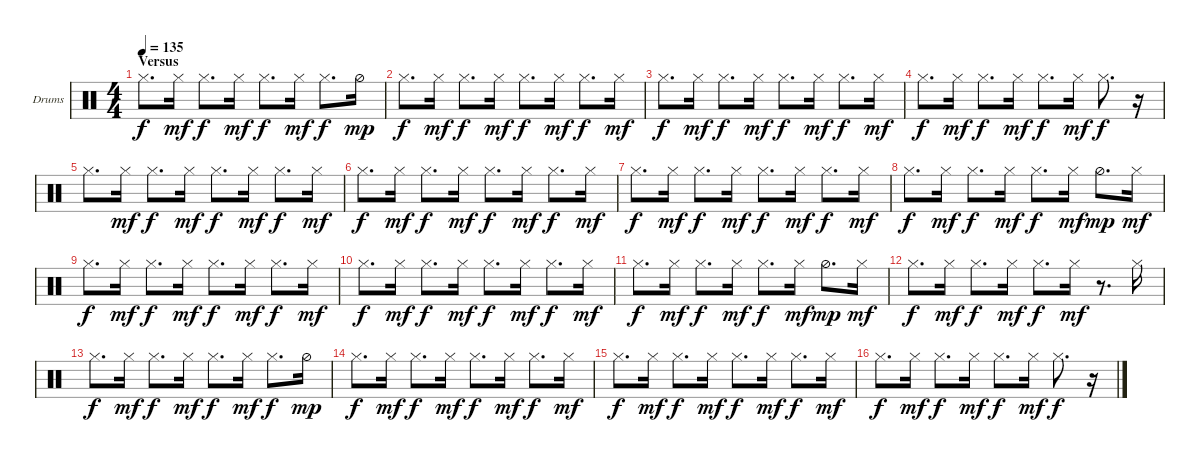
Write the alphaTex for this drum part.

\bracketExtendMode groupsimilarinstruments
\firstSystemTrackNameOrientation horizontal
\otherSystemsTrackNameOrientation horizontal
\track ("HH" "Drums") {instrument percussion}
\staff {score}
\articulation defaults
\ts (4 4)
\section ("" "Versus")
\tempo 135
\clef neutral
\ks c "Hi-Hat (closed)".8{d dy f} "Hi-Hat (closed)".16{dy mf} "Hi-Hat (closed)".8{d dy f} "Hi-Hat (closed)".16{dy mf} "Hi-Hat (closed)".8{d dy f} "Hi-Hat (closed)".16{dy mf} "Hi-Hat (closed)".8{d dy f} "Hi-Hat (half)".16{dy mp}
|
"Hi-Hat (closed)".8{d dy f} "Hi-Hat (closed)".16{dy mf} "Hi-Hat (closed)".8{d dy f} "Hi-Hat (closed)".16{dy mf} "Hi-Hat (closed)".8{d dy f} "Hi-Hat (closed)".16{dy mf} "Hi-Hat (closed)".8{d dy f} "Hi-Hat (closed)".16{dy mf} |
"Hi-Hat (closed)".8{d dy f} "Hi-Hat (closed)".16{dy mf} "Hi-Hat (closed)".8{d dy f} "Hi-Hat (closed)".16{dy mf} "Hi-Hat (closed)".8{d dy f} "Hi-Hat (closed)".16{dy mf} "Hi-Hat (closed)".8{d dy f} "Hi-Hat (closed)".16{dy mf} |
"Hi-Hat (closed)".8{d dy f} "Hi-Hat (closed)".16{dy mf} "Hi-Hat (closed)".8{d dy f} "Hi-Hat (closed)".16{dy mf} "Hi-Hat (closed)".8{d dy f} "Hi-Hat (closed)".16{dy mf} "Hi-Hat (closed)".8{d dy f} r.16 |
"Hi-Hat (closed)".8{d} "Hi-Hat (closed)".16{dy mf} "Hi-Hat (closed)".8{d dy f} "Hi-Hat (closed)".16{dy mf} "Hi-Hat (closed)".8{d dy f} "Hi-Hat (closed)".16{dy mf} "Hi-Hat (closed)".8{d dy f} "Hi-Hat (closed)".16{dy mf} |
"Hi-Hat (closed)".8{d dy f} "Hi-Hat (closed)".16{dy mf} "Hi-Hat (closed)".8{d dy f} "Hi-Hat (closed)".16{dy mf} "Hi-Hat (closed)".8{d dy f} "Hi-Hat (closed)".16{dy mf} "Hi-Hat (closed)".8{d dy f} "Hi-Hat (closed)".16{dy mf} |
"Hi-Hat (closed)".8{d dy f} "Hi-Hat (closed)".16{dy mf} "Hi-Hat (closed)".8{d dy f} "Hi-Hat (closed)".16{dy mf} "Hi-Hat (closed)".8{d dy f} "Hi-Hat (closed)".16{dy mf} "Hi-Hat (closed)".8{d dy f} "Hi-Hat (closed)".16{dy mf} |
"Hi-Hat (closed)".8{d dy f} "Hi-Hat (closed)".16{dy mf} "Hi-Hat (closed)".8{d dy f} "Hi-Hat (closed)".16{dy mf} "Hi-Hat (closed)".8{d dy f} "Hi-Hat (closed)".16{dy mf} "Hi-Hat (half)".8{d dy mp} "Hi-Hat (closed)".16{dy mf} |
"Hi-Hat (closed)".8{d dy f} "Hi-Hat (closed)".16{dy mf} "Hi-Hat (closed)".8{d dy f} "Hi-Hat (closed)".16{dy mf} "Hi-Hat (closed)".8{d dy f} "Hi-Hat (closed)".16{dy mf} "Hi-Hat (closed)".8{d dy f} "Hi-Hat (closed)".16{dy mf} |
"Hi-Hat (closed)".8{d dy f} "Hi-Hat (closed)".16{dy mf} "Hi-Hat (closed)".8{d dy f} "Hi-Hat (closed)".16{dy mf} "Hi-Hat (closed)".8{d dy f} "Hi-Hat (closed)".16{dy mf} "Hi-Hat (closed)".8{d dy f} "Hi-Hat (closed)".16{dy mf} |
"Hi-Hat (closed)".8{d dy f} "Hi-Hat (closed)".16{dy mf} "Hi-Hat (closed)".8{d dy f} "Hi-Hat (closed)".16{dy mf} "Hi-Hat (closed)".8{d dy f} "Hi-Hat (closed)".16{dy mf} "Hi-Hat (half)".8{d dy mp} "Hi-Hat (closed)".16{dy mf} |
"Hi-Hat (closed)".8{d dy f} "Hi-Hat (closed)".16{dy mf} "Hi-Hat (closed)".8{d dy f} "Hi-Hat (closed)".16{dy mf} "Hi-Hat (closed)".8{d dy f} "Hi-Hat (closed)".16{dy mf} r.8{d} "Hi-Hat (closed)".16 |
"Hi-Hat (closed)".8{d dy f} "Hi-Hat (closed)".16{dy mf} "Hi-Hat (closed)".8{d dy f} "Hi-Hat (closed)".16{dy mf} "Hi-Hat (closed)".8{d dy f} "Hi-Hat (closed)".16{dy mf} "Hi-Hat (closed)".8{d dy f} "Hi-Hat (half)".16{dy mp} |
"Hi-Hat (closed)".8{d dy f} "Hi-Hat (closed)".16{dy mf} "Hi-Hat (closed)".8{d dy f} "Hi-Hat (closed)".16{dy mf} "Hi-Hat (closed)".8{d dy f} "Hi-Hat (closed)".16{dy mf} "Hi-Hat (closed)".8{d dy f} "Hi-Hat (closed)".16{dy mf} |
"Hi-Hat (closed)".8{d dy f} "Hi-Hat (closed)".16{dy mf} "Hi-Hat (closed)".8{d dy f} "Hi-Hat (closed)".16{dy mf} "Hi-Hat (closed)".8{d dy f} "Hi-Hat (closed)".16{dy mf} "Hi-Hat (closed)".8{d dy f} "Hi-Hat (closed)".16{dy mf} |
"Hi-Hat (closed)".8{d dy f} "Hi-Hat (closed)".16{dy mf} "Hi-Hat (closed)".8{d dy f} "Hi-Hat (closed)".16{dy mf} "Hi-Hat (closed)".8{d dy f} "Hi-Hat (closed)".16{dy mf} "Hi-Hat (closed)".8{d dy f} r.16
